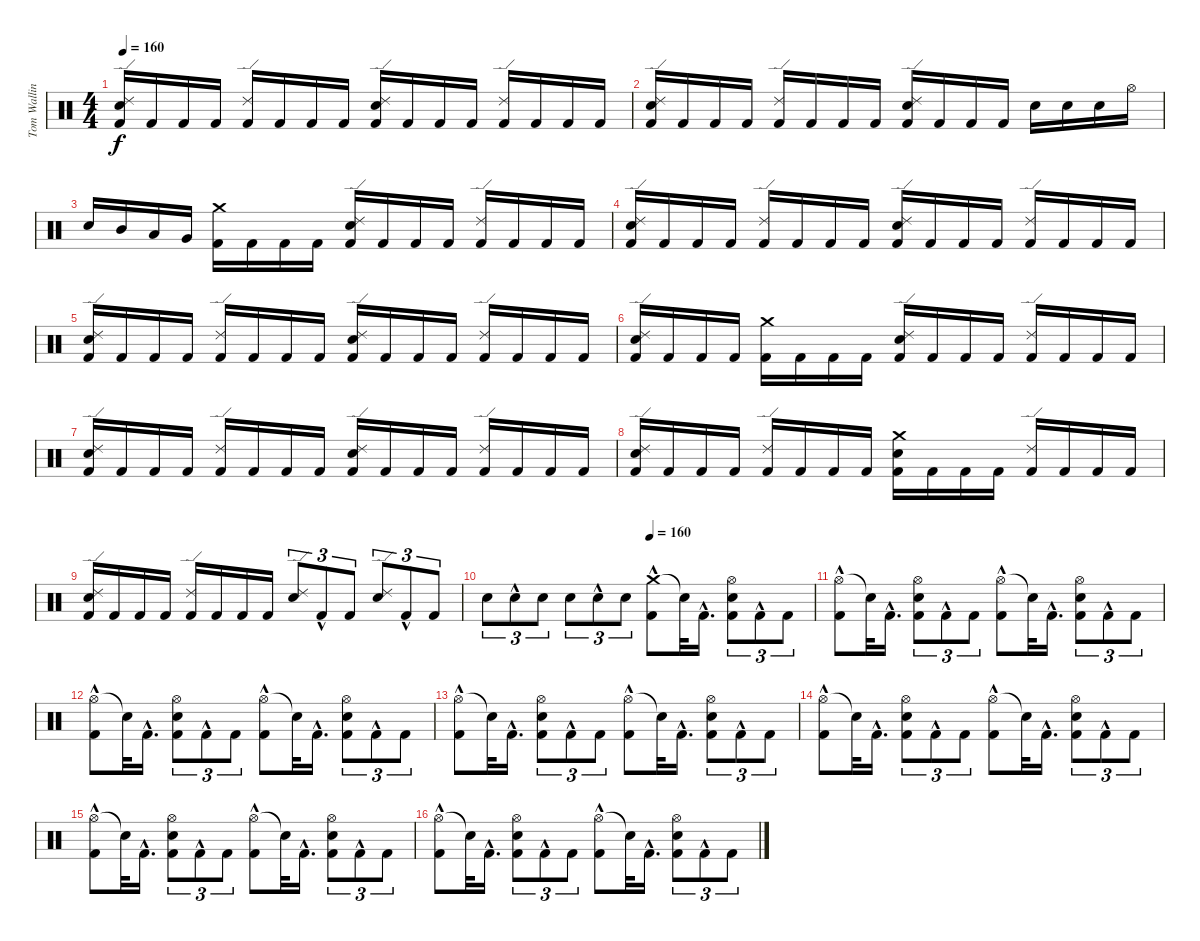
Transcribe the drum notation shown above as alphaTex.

\track ("Tom Walling (Drums)" "Tom Wallin") {instrument percussion}
\staff {score}
\articulation defaults
\ts (4 4)
\tempo 160
\clef neutral
\ks c
("Electric Snare (hit)" "Kick (hit) 2" "Ride (edge) 2").16{dy f} "Kick (hit) 2".16 "Kick (hit) 2".16 "Kick (hit) 2".16 ("Kick (hit) 2" "Ride (edge) 2").16 "Kick (hit) 2".16 "Kick (hit) 2".16 "Kick (hit) 2".16 ("Electric Snare (hit)" "Kick (hit) 2" "Ride (edge) 2").16 "Kick (hit) 2".16 "Kick (hit) 2".16 "Kick (hit) 2".16 ("Ride (edge) 2" "Kick (hit) 2").16 "Kick (hit) 2".16 "Kick (hit) 2".16 "Kick (hit) 2".16 |
("Electric Snare (hit)" "Kick (hit) 2" "Ride (edge) 2").16 "Kick (hit) 2".16 "Kick (hit) 2".16 "Kick (hit) 2".16 ("Kick (hit) 2" "Ride (edge) 2").16 "Kick (hit) 2".16 "Kick (hit) 2".16 "Kick (hit) 2".16 ("Electric Snare (hit)" "Kick (hit) 2" "Ride (edge) 2").16 "Kick (hit) 2".16 "Kick (hit) 2".16 "Kick (hit) 2".16 "Electric Snare (hit)".16 "Electric Snare (hit)".16 "Electric Snare (hit)".16 "Hi-Hat (open)".16 |
"Electric Snare (hit)".16 "Mid Tom (hit)".16 "Low Tom (hit)".16 "Very Low Tom (hit)".16 ("Kick (hit) 2" "Crash medium (hit)").16 "Kick (hit) 2".16 "Kick (hit) 2".16 "Kick (hit) 2".16 ("Electric Snare (hit)" "Kick (hit) 2" "Ride (edge) 2").16 "Kick (hit) 2".16 "Kick (hit) 2".16 "Kick (hit) 2".16 ("Kick (hit) 2" "Ride (edge) 2").16 "Kick (hit) 2".16 "Kick (hit) 2".16 "Kick (hit) 2".16 |
("Electric Snare (hit)" "Kick (hit) 2" "Ride (edge) 2").16 "Kick (hit) 2".16 "Kick (hit) 2".16 "Kick (hit) 2".16 ("Kick (hit) 2" "Ride (edge) 2").16 "Kick (hit) 2".16 "Kick (hit) 2".16 "Kick (hit) 2".16 ("Electric Snare (hit)" "Kick (hit) 2" "Ride (edge) 2").16 "Kick (hit) 2".16 "Kick (hit) 2".16 "Kick (hit) 2".16 ("Ride (edge) 2" "Kick (hit) 2").16 "Kick (hit) 2".16 "Kick (hit) 2".16 "Kick (hit) 2".16 |
("Electric Snare (hit)" "Kick (hit) 2" "Ride (edge) 2").16 "Kick (hit) 2".16 "Kick (hit) 2".16 "Kick (hit) 2".16 ("Kick (hit) 2" "Ride (edge) 2").16 "Kick (hit) 2".16 "Kick (hit) 2".16 "Kick (hit) 2".16 ("Electric Snare (hit)" "Kick (hit) 2" "Ride (edge) 2").16 "Kick (hit) 2".16 "Kick (hit) 2".16 "Kick (hit) 2".16 ("Kick (hit) 2" "Ride (edge) 2").16 "Kick (hit) 2".16 "Kick (hit) 2".16 "Kick (hit) 2".16 |
("Electric Snare (hit)" "Kick (hit) 2" "Ride (edge) 2").16 "Kick (hit) 2".16 "Kick (hit) 2".16 "Kick (hit) 2".16 ("Kick (hit) 2" "Crash medium (hit)").16 "Kick (hit) 2".16 "Kick (hit) 2".16 "Kick (hit) 2".16 ("Electric Snare (hit)" "Kick (hit) 2" "Ride (edge) 2").16 "Kick (hit) 2".16 "Kick (hit) 2".16 "Kick (hit) 2".16 ("Kick (hit) 2" "Ride (edge) 2").16 "Kick (hit) 2".16 "Kick (hit) 2".16 "Kick (hit) 2".16 |
("Electric Snare (hit)" "Kick (hit) 2" "Ride (edge) 2").16 "Kick (hit) 2".16 "Kick (hit) 2".16 "Kick (hit) 2".16 ("Kick (hit) 2" "Ride (edge) 2").16 "Kick (hit) 2".16 "Kick (hit) 2".16 "Kick (hit) 2".16 ("Electric Snare (hit)" "Kick (hit) 2" "Ride (edge) 2").16 "Kick (hit) 2".16 "Kick (hit) 2".16 "Kick (hit) 2".16 ("Ride (edge) 2" "Kick (hit) 2").16 "Kick (hit) 2".16 "Kick (hit) 2".16 "Kick (hit) 2".16 |
("Electric Snare (hit)" "Kick (hit) 2" "Ride (edge) 2").16 "Kick (hit) 2".16 "Kick (hit) 2".16 "Kick (hit) 2".16 ("Kick (hit) 2" "Ride (edge) 2").16 "Kick (hit) 2".16 "Kick (hit) 2".16 "Kick (hit) 2".16 ("Crash medium (hit)" "Electric Snare (hit)" "Kick (hit) 2").16 "Kick (hit) 2".16 "Kick (hit) 2".16 "Kick (hit) 2".16 ("Kick (hit) 2" "Ride (edge) 2").16 "Kick (hit) 2".16 "Kick (hit) 2".16 "Kick (hit) 2".16 |
("Electric Snare (hit)" "Kick (hit) 2" "Ride (edge) 2").16 "Kick (hit) 2".16 "Kick (hit) 2".16 "Kick (hit) 2".16 ("Ride (edge) 2" "Kick (hit) 2").16 "Kick (hit) 2".16 "Kick (hit) 2".16 "Kick (hit) 2".16 ("Ride (edge) 2" "Electric Snare (hit)").8{tu (3 2)} "Kick (hit) 2"{hac}.8{tu (3 2)} "Kick (hit) 2".8{tu (3 2)} ("Ride (edge) 2" "Electric Snare (hit)").8{tu (3 2)} "Kick (hit) 2"{hac}.8{tu (3 2)} "Kick (hit) 2".8{tu (3 2)} |
\tempo (160 0.5)
"Electric Snare (hit)".8{tu (3 2)} "Electric Snare (hit)"{hac}.8{tu (3 2)} "Electric Snare (hit)".8{tu (3 2)} "Electric Snare (hit)".8{tu (3 2)} "Electric Snare (hit)"{hac}.8{tu (3 2)} "Electric Snare (hit)".8{tu (3 2)} ("Crash medium (hit)" "Kick (hit) 2"{hac}).8{volume 16 balance 8} "Snare (hit)"{t}.32 "Kick (hit) 2"{hac}.16{d} ("Hi-Hat (open)" "Electric Snare (hit)" "Kick (hit) 2").8{tu (3 2)} "Kick (hit) 2"{hac}.8{tu (3 2)} "Kick (hit) 2".8{tu (3 2)} |
("Hi-Hat (open)" "Kick (hit) 2"{hac}).8 "Snare (hit)"{t}.32 "Kick (hit) 2"{hac}.16{d} ("Hi-Hat (open)" "Electric Snare (hit)" "Kick (hit) 2").8{tu (3 2)} "Kick (hit) 2"{hac}.8{tu (3 2)} "Kick (hit) 2".8{tu (3 2)} ("Hi-Hat (open)" "Kick (hit) 2"{hac}).8 "Snare (hit)"{t}.32 "Kick (hit) 2"{hac}.16{d} ("Hi-Hat (open)" "Electric Snare (hit)" "Kick (hit) 2").8{tu (3 2)} "Kick (hit) 2"{hac}.8{tu (3 2)} "Kick (hit) 2".8{tu (3 2)} |
("Hi-Hat (open)" "Kick (hit) 2"{hac}).8 "Snare (hit)"{t}.32 "Kick (hit) 2"{hac}.16{d} ("Hi-Hat (open)" "Electric Snare (hit)" "Kick (hit) 2").8{tu (3 2)} "Kick (hit) 2"{hac}.8{tu (3 2)} "Kick (hit) 2".8{tu (3 2)} ("Hi-Hat (open)" "Kick (hit) 2"{hac}).8 "Snare (hit)"{t}.32 "Kick (hit) 2"{hac}.16{d} ("Hi-Hat (open)" "Electric Snare (hit)" "Kick (hit) 2").8{tu (3 2)} "Kick (hit) 2"{hac}.8{tu (3 2)} "Kick (hit) 2".8{tu (3 2)} |
("Hi-Hat (open)" "Kick (hit) 2"{hac}).8 "Snare (hit)"{t}.32 "Kick (hit) 2"{hac}.16{d} ("Hi-Hat (open)" "Electric Snare (hit)" "Kick (hit) 2").8{tu (3 2)} "Kick (hit) 2"{hac}.8{tu (3 2)} "Kick (hit) 2".8{tu (3 2)} ("Hi-Hat (open)" "Kick (hit) 2"{hac}).8 "Snare (hit)"{t}.32 "Kick (hit) 2"{hac}.16{d} ("Hi-Hat (open)" "Electric Snare (hit)" "Kick (hit) 2").8{tu (3 2)} "Kick (hit) 2"{hac}.8{tu (3 2)} "Kick (hit) 2".8{tu (3 2)} |
("Hi-Hat (open)" "Kick (hit) 2"{hac}).8 "Snare (hit)"{t}.32 "Kick (hit) 2"{hac}.16{d} ("Hi-Hat (open)" "Electric Snare (hit)" "Kick (hit) 2").8{tu (3 2)} "Kick (hit) 2"{hac}.8{tu (3 2)} "Kick (hit) 2".8{tu (3 2)} ("Hi-Hat (open)" "Kick (hit) 2"{hac}).8 "Snare (hit)"{t}.32 "Kick (hit) 2"{hac}.16{d} ("Hi-Hat (open)" "Electric Snare (hit)" "Kick (hit) 2").8{tu (3 2)} "Kick (hit) 2"{hac}.8{tu (3 2)} "Kick (hit) 2".8{tu (3 2)} |
("Hi-Hat (open)" "Kick (hit) 2"{hac}).8 "Snare (hit)"{t}.32 "Kick (hit) 2"{hac}.16{d} ("Hi-Hat (open)" "Electric Snare (hit)" "Kick (hit) 2").8{tu (3 2)} "Kick (hit) 2"{hac}.8{tu (3 2)} "Kick (hit) 2".8{tu (3 2)} ("Hi-Hat (open)" "Kick (hit) 2"{hac}).8 "Snare (hit)"{t}.32 "Kick (hit) 2"{hac}.16{d} ("Hi-Hat (open)" "Electric Snare (hit)" "Kick (hit) 2").8{tu (3 2)} "Kick (hit) 2"{hac}.8{tu (3 2)} "Kick (hit) 2".8{tu (3 2)} |
("Hi-Hat (open)" "Kick (hit) 2"{hac}).8 "Snare (hit)"{t}.32 "Kick (hit) 2"{hac}.16{d} ("Hi-Hat (open)" "Electric Snare (hit)" "Kick (hit) 2").8{tu (3 2)} "Kick (hit) 2"{hac}.8{tu (3 2)} "Kick (hit) 2".8{tu (3 2)} ("Hi-Hat (open)" "Kick (hit) 2"{hac}).8 "Snare (hit)"{t}.32 "Kick (hit) 2"{hac}.16{d} ("Hi-Hat (open)" "Electric Snare (hit)" "Kick (hit) 2").8{tu (3 2)} "Kick (hit) 2"{hac}.8{tu (3 2)} "Kick (hit) 2".8{tu (3 2)}
